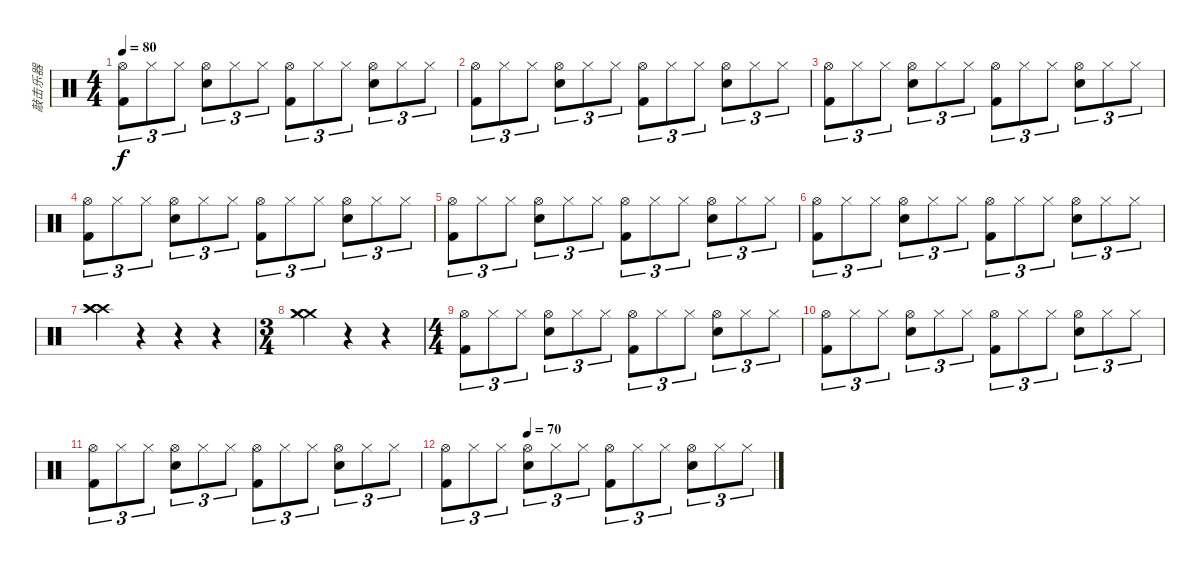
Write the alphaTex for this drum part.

\track ("敲击乐器" "敲击乐器") {instrument percussion}
\staff {score}
\articulation defaults
\ts (4 4)
\tempo 80
\clef neutral
\ks c
("Hi-Hat (open)" "Kick (hit) 2").8{tu (3 2) dy f} "Hi-Hat (closed)".8{tu (3 2)} "Hi-Hat (closed)".8{tu (3 2)} ("Hi-Hat (open)" "Electric Snare (hit)").8{tu (3 2)} "Hi-Hat (closed)".8{tu (3 2)} "Hi-Hat (closed)".8{tu (3 2)} ("Hi-Hat (open)" "Kick (hit) 2").8{tu (3 2)} "Hi-Hat (closed)".8{tu (3 2)} "Hi-Hat (closed)".8{tu (3 2)} ("Hi-Hat (open)" "Electric Snare (hit)").8{tu (3 2)} "Hi-Hat (closed)".8{tu (3 2)} "Hi-Hat (closed)".8{tu (3 2)} |
("Hi-Hat (open)" "Kick (hit) 2").8{tu (3 2)} "Hi-Hat (closed)".8{tu (3 2)} "Hi-Hat (closed)".8{tu (3 2)} ("Hi-Hat (open)" "Electric Snare (hit)").8{tu (3 2)} "Hi-Hat (closed)".8{tu (3 2)} "Hi-Hat (closed)".8{tu (3 2)} ("Hi-Hat (open)" "Kick (hit) 2").8{tu (3 2)} "Hi-Hat (closed)".8{tu (3 2)} "Hi-Hat (closed)".8{tu (3 2)} ("Hi-Hat (open)" "Electric Snare (hit)").8{tu (3 2)} "Hi-Hat (closed)".8{tu (3 2)} "Hi-Hat (closed)".8{tu (3 2)} |
("Hi-Hat (open)" "Kick (hit) 2").8{tu (3 2)} "Hi-Hat (closed)".8{tu (3 2)} "Hi-Hat (closed)".8{tu (3 2)} ("Hi-Hat (open)" "Electric Snare (hit)").8{tu (3 2)} "Hi-Hat (closed)".8{tu (3 2)} "Hi-Hat (closed)".8{tu (3 2)} ("Hi-Hat (open)" "Kick (hit) 2").8{tu (3 2)} "Hi-Hat (closed)".8{tu (3 2)} "Hi-Hat (closed)".8{tu (3 2)} ("Hi-Hat (open)" "Electric Snare (hit)").8{tu (3 2)} "Hi-Hat (closed)".8{tu (3 2)} "Hi-Hat (closed)".8{tu (3 2)} |
("Hi-Hat (open)" "Kick (hit) 2").8{tu (3 2)} "Hi-Hat (closed)".8{tu (3 2)} "Hi-Hat (closed)".8{tu (3 2)} ("Hi-Hat (open)" "Electric Snare (hit)").8{tu (3 2)} "Hi-Hat (closed)".8{tu (3 2)} "Hi-Hat (closed)".8{tu (3 2)} ("Hi-Hat (open)" "Kick (hit) 2").8{tu (3 2)} "Hi-Hat (closed)".8{tu (3 2)} "Hi-Hat (closed)".8{tu (3 2)} ("Hi-Hat (open)" "Electric Snare (hit)").8{tu (3 2)} "Hi-Hat (closed)".8{tu (3 2)} "Hi-Hat (closed)".8{tu (3 2)} |
("Hi-Hat (open)" "Kick (hit) 2").8{tu (3 2)} "Hi-Hat (closed)".8{tu (3 2)} "Hi-Hat (closed)".8{tu (3 2)} ("Hi-Hat (open)" "Electric Snare (hit)").8{tu (3 2)} "Hi-Hat (closed)".8{tu (3 2)} "Hi-Hat (closed)".8{tu (3 2)} ("Hi-Hat (open)" "Kick (hit) 2").8{tu (3 2)} "Hi-Hat (closed)".8{tu (3 2)} "Hi-Hat (closed)".8{tu (3 2)} ("Hi-Hat (open)" "Electric Snare (hit)").8{tu (3 2)} "Hi-Hat (closed)".8{tu (3 2)} "Hi-Hat (closed)".8{tu (3 2)} |
("Hi-Hat (open)" "Kick (hit) 2").8{tu (3 2)} "Hi-Hat (closed)".8{tu (3 2)} "Hi-Hat (closed)".8{tu (3 2)} ("Hi-Hat (open)" "Electric Snare (hit)").8{tu (3 2)} "Hi-Hat (closed)".8{tu (3 2)} "Hi-Hat (closed)".8{tu (3 2)} ("Hi-Hat (open)" "Kick (hit) 2").8{tu (3 2)} "Hi-Hat (closed)".8{tu (3 2)} "Hi-Hat (closed)".8{tu (3 2)} ("Hi-Hat (open)" "Electric Snare (hit)").8{tu (3 2)} "Hi-Hat (closed)".8{tu (3 2)} "Hi-Hat (closed)".8{tu (3 2)} |
("Crash high (hit)" "Crash high (hit)" "Crash high (hit)").4 r.4 r.4 r.4 |
\ts (3 4)
("Crash medium (hit)" "Crash medium (hit)" "Crash medium (hit)").4 r.4 r.4 |
\ts (4 4)
("Hi-Hat (open)" "Kick (hit) 2").8{tu (3 2)} "Hi-Hat (closed)".8{tu (3 2)} "Hi-Hat (closed)".8{tu (3 2)} ("Hi-Hat (open)" "Electric Snare (hit)").8{tu (3 2)} "Hi-Hat (closed)".8{tu (3 2)} "Hi-Hat (closed)".8{tu (3 2)} ("Hi-Hat (open)" "Kick (hit) 2").8{tu (3 2)} "Hi-Hat (closed)".8{tu (3 2)} "Hi-Hat (closed)".8{tu (3 2)} ("Hi-Hat (open)" "Electric Snare (hit)").8{tu (3 2)} "Hi-Hat (closed)".8{tu (3 2)} "Hi-Hat (closed)".8{tu (3 2)} |
("Hi-Hat (open)" "Kick (hit) 2").8{tu (3 2)} "Hi-Hat (closed)".8{tu (3 2)} "Hi-Hat (closed)".8{tu (3 2)} ("Hi-Hat (open)" "Electric Snare (hit)").8{tu (3 2)} "Hi-Hat (closed)".8{tu (3 2)} "Hi-Hat (closed)".8{tu (3 2)} ("Hi-Hat (open)" "Kick (hit) 2").8{tu (3 2)} "Hi-Hat (closed)".8{tu (3 2)} "Hi-Hat (closed)".8{tu (3 2)} ("Hi-Hat (open)" "Electric Snare (hit)").8{tu (3 2)} "Hi-Hat (closed)".8{tu (3 2)} "Hi-Hat (closed)".8{tu (3 2)} |
("Hi-Hat (open)" "Kick (hit) 2").8{tu (3 2)} "Hi-Hat (closed)".8{tu (3 2)} "Hi-Hat (closed)".8{tu (3 2)} ("Hi-Hat (open)" "Electric Snare (hit)").8{tu (3 2)} "Hi-Hat (closed)".8{tu (3 2)} "Hi-Hat (closed)".8{tu (3 2)} ("Hi-Hat (open)" "Kick (hit) 2").8{tu (3 2)} "Hi-Hat (closed)".8{tu (3 2)} "Hi-Hat (closed)".8{tu (3 2)} ("Hi-Hat (open)" "Electric Snare (hit)").8{tu (3 2)} "Hi-Hat (closed)".8{tu (3 2)} "Hi-Hat (closed)".8{tu (3 2)} |
\tempo (70 0.25)
("Hi-Hat (open)" "Kick (hit) 2").8{tu (3 2)} "Hi-Hat (closed)".8{tu (3 2)} "Hi-Hat (closed)".8{tu (3 2)} ("Hi-Hat (open)" "Electric Snare (hit)").8{tu (3 2)} "Hi-Hat (closed)".8{tu (3 2)} "Hi-Hat (closed)".8{tu (3 2)} ("Hi-Hat (open)" "Kick (hit) 2").8{tu (3 2)} "Hi-Hat (closed)".8{tu (3 2)} "Hi-Hat (closed)".8{tu (3 2)} ("Hi-Hat (open)" "Electric Snare (hit)").8{tu (3 2)} "Hi-Hat (closed)".8{tu (3 2)} "Hi-Hat (closed)".8{tu (3 2)}
